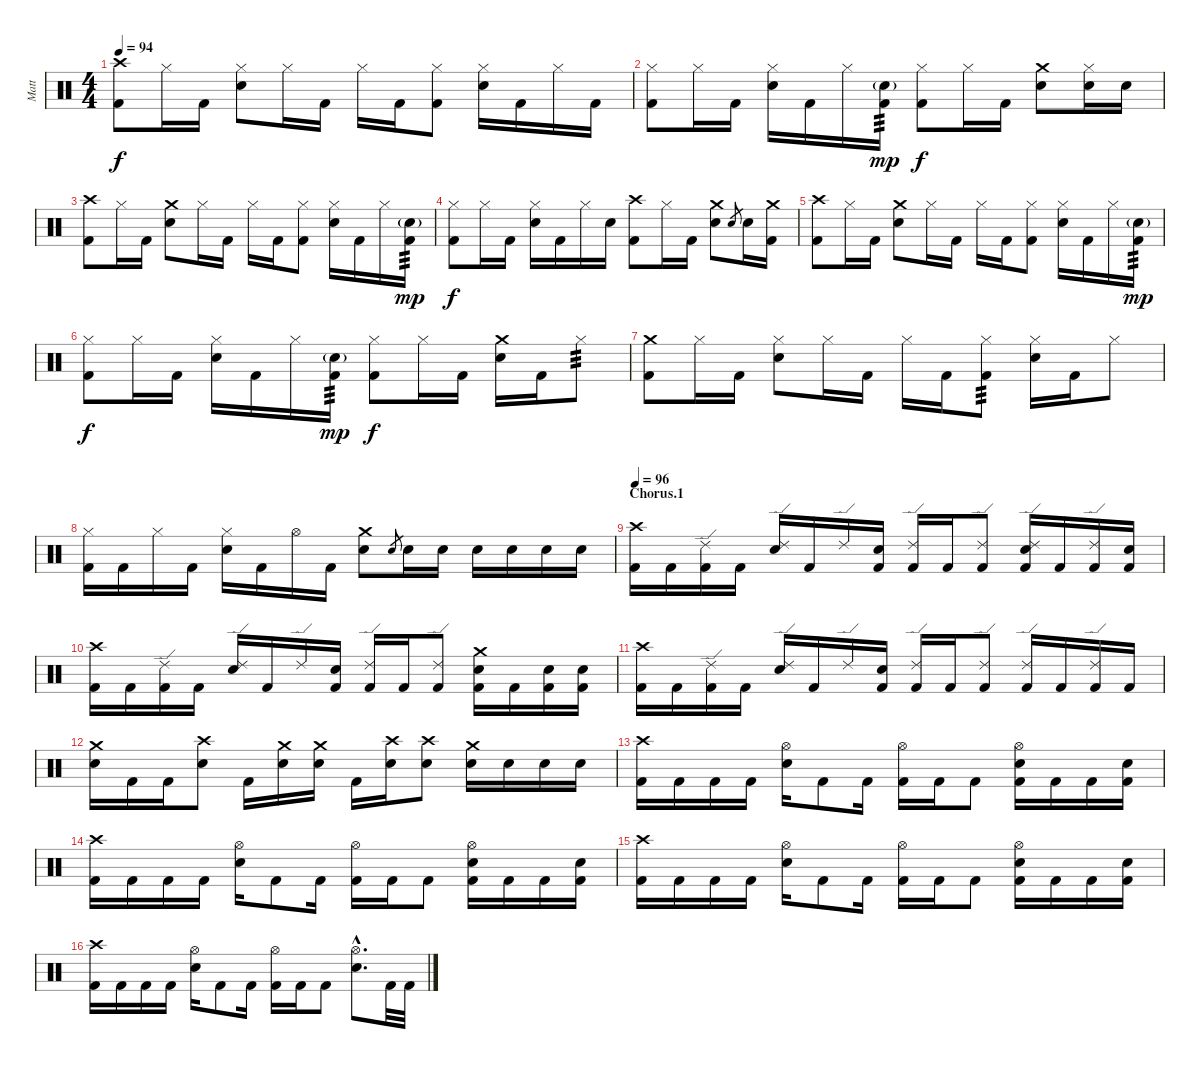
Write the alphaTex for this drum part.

\track ("Matt" "Matt") {instrument percussion}
\staff {score}
\articulation defaults
\ts (4 4)
\tempo 94
\clef neutral
\ks c
("Crash high (hit)" "Kick (hit) 2").8{dy f} "Hi-Hat (closed)".16 "Kick (hit) 2".16 ("Hi-Hat (closed)" "Electric Snare (hit)").8 "Hi-Hat (closed)".16 "Kick (hit) 2".16 "Hi-Hat (closed)".16 "Kick (hit) 2".16 ("Hi-Hat (closed)" "Kick (hit) 2").8 ("Hi-Hat (closed)" "Electric Snare (hit)").16 "Kick (hit) 2".16 "Hi-Hat (closed)".16 "Kick (hit) 2".16 |
("Hi-Hat (closed)" "Kick (hit) 2").8 "Hi-Hat (closed)".16 "Kick (hit) 2".16 ("Hi-Hat (closed)" "Electric Snare (hit)").16 "Kick (hit) 2".16 "Hi-Hat (closed)".16 ("Electric Snare (hit)"{g} "Kick (hit) 2").16{tp 3 dy mp} ("Hi-Hat (closed)" "Kick (hit) 2").8{dy f} "Hi-Hat (closed)".16 "Kick (hit) 2".16 ("Crash medium (hit)" "Electric Snare (hit)").8 ("Hi-Hat (closed)" "Electric Snare (hit)").16 "Electric Snare (hit)".16 |
("Crash high (hit)" "Kick (hit) 2").8 "Hi-Hat (closed)".16 "Kick (hit) 2".16 ("Crash medium (hit)" "Electric Snare (hit)").8 "Hi-Hat (closed)".16 "Kick (hit) 2".16 "Hi-Hat (closed)".16 "Kick (hit) 2".16 ("Hi-Hat (closed)" "Kick (hit) 2").8 ("Hi-Hat (closed)" "Electric Snare (hit)").16 "Kick (hit) 2".16 "Hi-Hat (closed)".16 ("Electric Snare (hit)"{g} "Kick (hit) 2").16{tp 3 dy mp} |
("Hi-Hat (closed)" "Kick (hit) 2").8{dy f} "Hi-Hat (closed)".16 "Kick (hit) 2".16 ("Hi-Hat (closed)" "Electric Snare (hit)").16 "Kick (hit) 2".16 "Hi-Hat (closed)".16 "Electric Snare (hit)".16 ("Crash high (hit)" "Kick (hit) 2").8 "Hi-Hat (closed)".16 "Kick (hit) 2".16 ("Crash medium (hit)" "Electric Snare (hit)").8 "Electric Snare (hit)".8{gr} "Electric Snare (hit)".16 ("Crash medium (hit)" "Kick (hit) 2").16 |
("Crash high (hit)" "Kick (hit) 2").8 "Hi-Hat (closed)".16 "Kick (hit) 2".16 ("Crash medium (hit)" "Electric Snare (hit)").8 "Hi-Hat (closed)".16 "Kick (hit) 2".16 "Hi-Hat (closed)".16 "Kick (hit) 2".16 ("Hi-Hat (closed)" "Kick (hit) 2").8 ("Hi-Hat (closed)" "Electric Snare (hit)").16 "Kick (hit) 2".16 "Hi-Hat (closed)".16 ("Electric Snare (hit)"{g} "Kick (hit) 2").16{tp 3 dy mp} |
("Hi-Hat (closed)" "Kick (hit) 2").8{dy f} "Hi-Hat (closed)".16 "Kick (hit) 2".16 ("Hi-Hat (closed)" "Electric Snare (hit)").16 "Kick (hit) 2".16 "Hi-Hat (closed)".16 ("Electric Snare (hit)"{g} "Kick (hit) 2").16{tp 3 dy mp} ("Hi-Hat (closed)" "Kick (hit) 2").8{dy f} "Hi-Hat (closed)".16 "Kick (hit) 2".16 ("Crash medium (hit)" "Electric Snare (hit)").16 "Kick (hit) 2".16 "Hi-Hat (closed)".8{tp 3} |
("Crash medium (hit)" "Kick (hit) 2").8 "Hi-Hat (closed)".16 "Kick (hit) 2".16 ("Hi-Hat (closed)" "Electric Snare (hit)").8 "Hi-Hat (closed)".16 "Kick (hit) 2".16 "Hi-Hat (closed)".16 "Kick (hit) 2".16 ("Hi-Hat (closed)" "Kick (hit) 2").8{tp 3} ("Hi-Hat (closed)" "Electric Snare (hit)").16 "Kick (hit) 2".16 "Hi-Hat (closed)".8 |
("Hi-Hat (closed)" "Kick (hit) 2").16 "Kick (hit) 2".16 "Hi-Hat (closed)".16 "Kick (hit) 2".16 ("Hi-Hat (closed)" "Electric Snare (hit)").16 "Kick (hit) 2".16 "Hi-Hat (open)".16 "Kick (hit) 2".16 ("Crash medium (hit)" "Electric Snare (hit)").8 "Electric Snare (hit)".8{gr} "Electric Snare (hit)".16 "Electric Snare (hit)".16 "Electric Snare (hit)".16 "Electric Snare (hit)".16 "Electric Snare (hit)".16 "Electric Snare (hit)".16 |
\section ("" "Chorus.1")
\tempo 96
("Crash high (hit)" "Kick (hit) 2").16 "Kick (hit) 2".16 ("Ride (edge) 2" "Kick (hit) 2").16 "Kick (hit) 2".16 ("Ride (edge) 2" "Electric Snare (hit)").16 "Kick (hit) 2".16 "Ride (edge) 2".16 ("Electric Snare (hit)" "Kick (hit) 2").16 ("Ride (edge) 2" "Kick (hit) 2").16 "Kick (hit) 2".16 ("Ride (edge) 2" "Kick (hit) 2").8 ("Ride (edge) 2" "Electric Snare (hit)" "Kick (hit) 2").16 "Kick (hit) 2".16 ("Ride (edge) 2" "Kick (hit) 2").16 ("Electric Snare (hit)" "Kick (hit) 2").16 |
("Crash high (hit)" "Kick (hit) 2").16 "Kick (hit) 2".16 ("Ride (edge) 2" "Kick (hit) 2").16 "Kick (hit) 2".16 ("Ride (edge) 2" "Electric Snare (hit)").16 "Kick (hit) 2".16 "Ride (edge) 2".16 ("Electric Snare (hit)" "Kick (hit) 2").16 ("Ride (edge) 2" "Kick (hit) 2").16 "Kick (hit) 2".16 ("Ride (edge) 2" "Kick (hit) 2").8 ("Crash medium (hit)" "Electric Snare (hit)" "Kick (hit) 2").16 "Kick (hit) 2".16 ("Electric Snare (hit)" "Kick (hit) 2").16 ("Electric Snare (hit)" "Kick (hit) 2").16 |
("Crash high (hit)" "Kick (hit) 2").16 "Kick (hit) 2".16 ("Ride (edge) 2" "Kick (hit) 2").16 "Kick (hit) 2".16 ("Ride (edge) 2" "Electric Snare (hit)").16 "Kick (hit) 2".16 "Ride (edge) 2".16 ("Electric Snare (hit)" "Kick (hit) 2").16 ("Ride (edge) 2" "Kick (hit) 2").16 "Kick (hit) 2".16 ("Ride (edge) 2" "Kick (hit) 2").8 ("Ride (edge) 2" "Kick (hit) 2").16 "Kick (hit) 2".16 ("Ride (edge) 2" "Kick (hit) 2").16 "Kick (hit) 2".16 |
("Crash medium (hit)" "Electric Snare (hit)").16 "Kick (hit) 2".16 "Kick (hit) 2".16 ("Crash high (hit)" "Electric Snare (hit)").8 "Kick (hit) 2".16 ("Crash medium (hit)" "Electric Snare (hit)").16 ("Crash medium (hit)" "Electric Snare (hit)").16 "Kick (hit) 2".16 ("Crash high (hit)" "Electric Snare (hit)").16 ("Crash high (hit)" "Electric Snare (hit)").8 ("Crash medium (hit)" "Electric Snare (hit)").16 "Electric Snare (hit)".16 "Electric Snare (hit)".16 "Electric Snare (hit)".16 |
("Crash high (hit)" "Kick (hit) 2").16 "Kick (hit) 2".16 "Kick (hit) 2".16 "Kick (hit) 2".16 ("Hi-Hat (open)" "Electric Snare (hit)").16 "Kick (hit) 2".8 "Kick (hit) 2".16 ("Hi-Hat (open)" "Kick (hit) 2").16 "Kick (hit) 2".16 "Kick (hit) 2".8 ("Hi-Hat (open)" "Electric Snare (hit)" "Kick (hit) 2").16 "Kick (hit) 2".16 "Kick (hit) 2".16 ("Electric Snare (hit)" "Kick (hit) 2").16 |
("Crash high (hit)" "Kick (hit) 2").16 "Kick (hit) 2".16 "Kick (hit) 2".16 "Kick (hit) 2".16 ("Hi-Hat (open)" "Electric Snare (hit)").16 "Kick (hit) 2".8 "Kick (hit) 2".16 ("Hi-Hat (open)" "Kick (hit) 2").16 "Kick (hit) 2".16 "Kick (hit) 2".8 ("Hi-Hat (open)" "Electric Snare (hit)" "Kick (hit) 2").16 "Kick (hit) 2".16 "Kick (hit) 2".16 ("Electric Snare (hit)" "Kick (hit) 2").16 |
("Crash high (hit)" "Kick (hit) 2").16 "Kick (hit) 2".16 "Kick (hit) 2".16 "Kick (hit) 2".16 ("Hi-Hat (open)" "Electric Snare (hit)").16 "Kick (hit) 2".8 "Kick (hit) 2".16 ("Hi-Hat (open)" "Kick (hit) 2").16 "Kick (hit) 2".16 "Kick (hit) 2".8 ("Hi-Hat (open)" "Electric Snare (hit)" "Kick (hit) 2").16 "Kick (hit) 2".16 "Kick (hit) 2".16 ("Electric Snare (hit)" "Kick (hit) 2").16 |
("Crash high (hit)" "Kick (hit) 2").16 "Kick (hit) 2".16 "Kick (hit) 2".16 "Kick (hit) 2".16 ("Hi-Hat (open)" "Electric Snare (hit)").16 "Kick (hit) 2".8 "Kick (hit) 2".16 ("Hi-Hat (open)" "Kick (hit) 2").16 "Kick (hit) 2".16 "Kick (hit) 2".8 ("Hi-Hat (open)"{hac} "Electric Snare (hit)"{hac}).8{d} "Kick (hit) 2".32 "Kick (hit) 2".32
